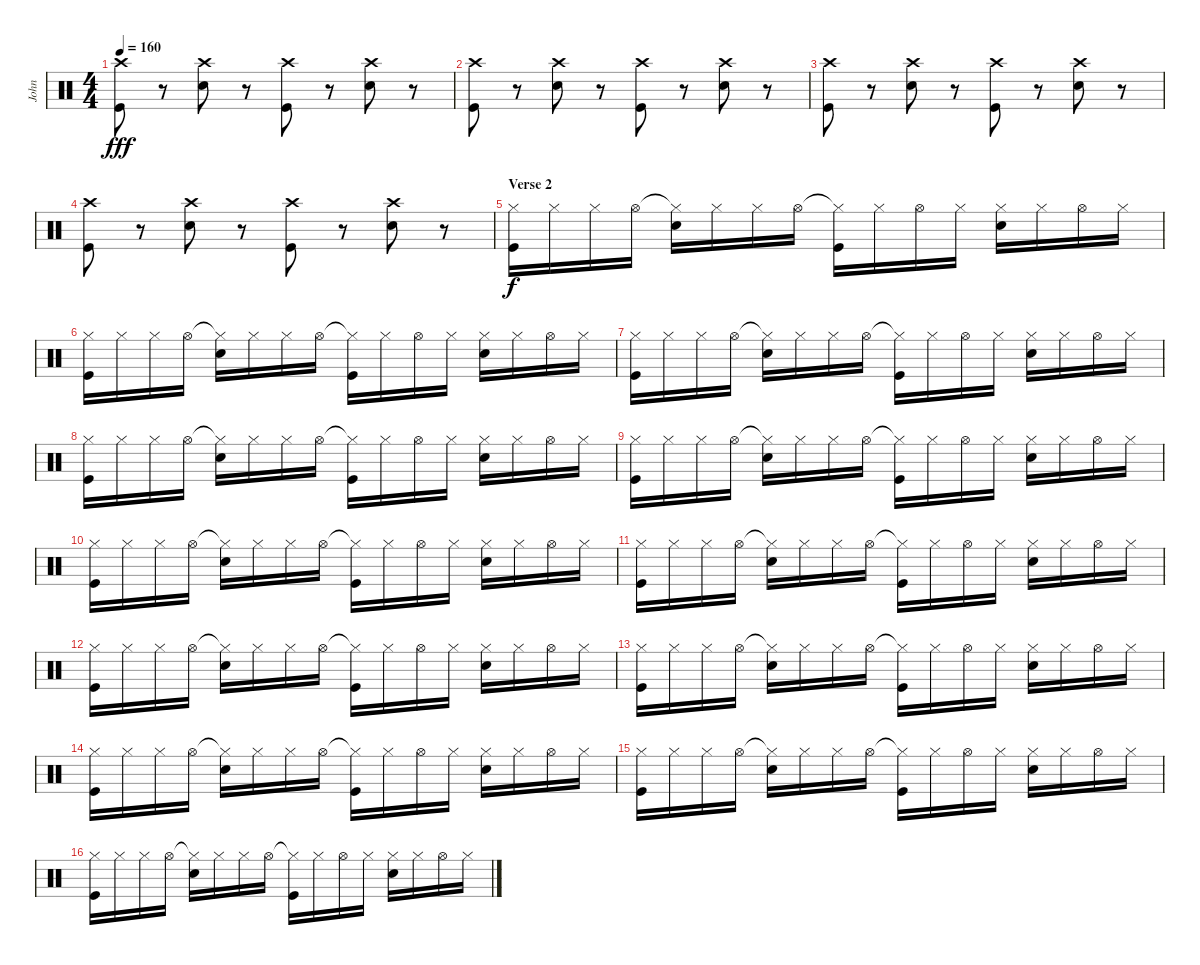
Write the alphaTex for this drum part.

\track ("John" "John") {instrument percussion}
\staff {score}
\articulation defaults
\ts (4 4)
\tempo 160
\clef neutral
\ks c
("Crash high (hit)" "Kick (hit)").8{dy fff} r.8 ("Crash high (hit)" "Electric Snare (hit)").8 r.8 ("Crash high (hit)" "Kick (hit)").8 r.8 ("Crash high (hit)" "Electric Snare (hit)").8 r.8 |
("Crash high (hit)" "Kick (hit)").8 r.8 ("Crash high (hit)" "Electric Snare (hit)").8 r.8 ("Crash high (hit)" "Kick (hit)").8 r.8 ("Crash high (hit)" "Electric Snare (hit)").8 r.8 |
("Crash high (hit)" "Kick (hit)").8 r.8 ("Crash high (hit)" "Electric Snare (hit)").8 r.8 ("Crash high (hit)" "Kick (hit)").8 r.8 ("Crash high (hit)" "Electric Snare (hit)").8 r.8 |
("Crash high (hit)" "Kick (hit)").8 r.8 ("Crash high (hit)" "Electric Snare (hit)").8 r.8 ("Crash high (hit)" "Kick (hit)").8 r.8 ("Crash high (hit)" "Electric Snare (hit)").8 r.8 |
\section ("" "Verse 2")
("Hi-Hat (closed)" "Kick (hit)").16{dy f} "Hi-Hat (closed)".16 "Hi-Hat (closed)".16 "Hi-Hat (open)".16 ("Hi-Hat (closed)"{t} "Electric Snare (hit)").16 "Hi-Hat (closed)".16 "Hi-Hat (closed)".16 "Hi-Hat (open)".16 ("Hi-Hat (closed)"{t} "Kick (hit)").16 "Hi-Hat (closed)".16 "Hi-Hat (open)".16 "Hi-Hat (closed)".16 ("Hi-Hat (closed)" "Electric Snare (hit)").16 "Hi-Hat (closed)".16 "Hi-Hat (open)".16 "Hi-Hat (closed)".16 |
("Hi-Hat (closed)" "Kick (hit)").16 "Hi-Hat (closed)".16 "Hi-Hat (closed)".16 "Hi-Hat (open)".16 ("Hi-Hat (closed)"{t} "Electric Snare (hit)").16 "Hi-Hat (closed)".16 "Hi-Hat (closed)".16 "Hi-Hat (open)".16 ("Hi-Hat (closed)"{t} "Kick (hit)").16 "Hi-Hat (closed)".16 "Hi-Hat (open)".16 "Hi-Hat (closed)".16 ("Hi-Hat (closed)" "Electric Snare (hit)").16 "Hi-Hat (closed)".16 "Hi-Hat (open)".16 "Hi-Hat (closed)".16 |
("Hi-Hat (closed)" "Kick (hit)").16 "Hi-Hat (closed)".16 "Hi-Hat (closed)".16 "Hi-Hat (open)".16 ("Hi-Hat (closed)"{t} "Electric Snare (hit)").16 "Hi-Hat (closed)".16 "Hi-Hat (closed)".16 "Hi-Hat (open)".16 ("Hi-Hat (closed)"{t} "Kick (hit)").16 "Hi-Hat (closed)".16 "Hi-Hat (open)".16 "Hi-Hat (closed)".16 ("Hi-Hat (closed)" "Electric Snare (hit)").16 "Hi-Hat (closed)".16 "Hi-Hat (open)".16 "Hi-Hat (closed)".16 |
("Hi-Hat (closed)" "Kick (hit)").16 "Hi-Hat (closed)".16 "Hi-Hat (closed)".16 "Hi-Hat (open)".16 ("Hi-Hat (closed)"{t} "Electric Snare (hit)").16 "Hi-Hat (closed)".16 "Hi-Hat (closed)".16 "Hi-Hat (open)".16 ("Hi-Hat (closed)"{t} "Kick (hit)").16 "Hi-Hat (closed)".16 "Hi-Hat (open)".16 "Hi-Hat (closed)".16 ("Hi-Hat (closed)" "Electric Snare (hit)").16 "Hi-Hat (closed)".16 "Hi-Hat (open)".16 "Hi-Hat (closed)".16 |
("Hi-Hat (closed)" "Kick (hit)").16 "Hi-Hat (closed)".16 "Hi-Hat (closed)".16 "Hi-Hat (open)".16 ("Hi-Hat (closed)"{t} "Electric Snare (hit)").16 "Hi-Hat (closed)".16 "Hi-Hat (closed)".16 "Hi-Hat (open)".16 ("Hi-Hat (closed)"{t} "Kick (hit)").16 "Hi-Hat (closed)".16 "Hi-Hat (open)".16 "Hi-Hat (closed)".16 ("Hi-Hat (closed)" "Electric Snare (hit)").16 "Hi-Hat (closed)".16 "Hi-Hat (open)".16 "Hi-Hat (closed)".16 |
("Hi-Hat (closed)" "Kick (hit)").16 "Hi-Hat (closed)".16 "Hi-Hat (closed)".16 "Hi-Hat (open)".16 ("Hi-Hat (closed)"{t} "Electric Snare (hit)").16 "Hi-Hat (closed)".16 "Hi-Hat (closed)".16 "Hi-Hat (open)".16 ("Hi-Hat (closed)"{t} "Kick (hit)").16 "Hi-Hat (closed)".16 "Hi-Hat (open)".16 "Hi-Hat (closed)".16 ("Hi-Hat (closed)" "Electric Snare (hit)").16 "Hi-Hat (closed)".16 "Hi-Hat (open)".16 "Hi-Hat (closed)".16 |
("Hi-Hat (closed)" "Kick (hit)").16 "Hi-Hat (closed)".16 "Hi-Hat (closed)".16 "Hi-Hat (open)".16 ("Hi-Hat (closed)"{t} "Electric Snare (hit)").16 "Hi-Hat (closed)".16 "Hi-Hat (closed)".16 "Hi-Hat (open)".16 ("Hi-Hat (closed)"{t} "Kick (hit)").16 "Hi-Hat (closed)".16 "Hi-Hat (open)".16 "Hi-Hat (closed)".16 ("Hi-Hat (closed)" "Electric Snare (hit)").16 "Hi-Hat (closed)".16 "Hi-Hat (open)".16 "Hi-Hat (closed)".16 |
("Hi-Hat (closed)" "Kick (hit)").16 "Hi-Hat (closed)".16 "Hi-Hat (closed)".16 "Hi-Hat (open)".16 ("Hi-Hat (closed)"{t} "Electric Snare (hit)").16 "Hi-Hat (closed)".16 "Hi-Hat (closed)".16 "Hi-Hat (open)".16 ("Hi-Hat (closed)"{t} "Kick (hit)").16 "Hi-Hat (closed)".16 "Hi-Hat (open)".16 "Hi-Hat (closed)".16 ("Hi-Hat (closed)" "Electric Snare (hit)").16 "Hi-Hat (closed)".16 "Hi-Hat (open)".16 "Hi-Hat (closed)".16 |
("Hi-Hat (closed)" "Kick (hit)").16 "Hi-Hat (closed)".16 "Hi-Hat (closed)".16 "Hi-Hat (open)".16 ("Hi-Hat (closed)"{t} "Electric Snare (hit)").16 "Hi-Hat (closed)".16 "Hi-Hat (closed)".16 "Hi-Hat (open)".16 ("Hi-Hat (closed)"{t} "Kick (hit)").16 "Hi-Hat (closed)".16 "Hi-Hat (open)".16 "Hi-Hat (closed)".16 ("Hi-Hat (closed)" "Electric Snare (hit)").16 "Hi-Hat (closed)".16 "Hi-Hat (open)".16 "Hi-Hat (closed)".16 |
("Hi-Hat (closed)" "Kick (hit)").16 "Hi-Hat (closed)".16 "Hi-Hat (closed)".16 "Hi-Hat (open)".16 ("Hi-Hat (closed)"{t} "Electric Snare (hit)").16 "Hi-Hat (closed)".16 "Hi-Hat (closed)".16 "Hi-Hat (open)".16 ("Hi-Hat (closed)"{t} "Kick (hit)").16 "Hi-Hat (closed)".16 "Hi-Hat (open)".16 "Hi-Hat (closed)".16 ("Hi-Hat (closed)" "Electric Snare (hit)").16 "Hi-Hat (closed)".16 "Hi-Hat (open)".16 "Hi-Hat (closed)".16 |
("Hi-Hat (closed)" "Kick (hit)").16 "Hi-Hat (closed)".16 "Hi-Hat (closed)".16 "Hi-Hat (open)".16 ("Hi-Hat (closed)"{t} "Electric Snare (hit)").16 "Hi-Hat (closed)".16 "Hi-Hat (closed)".16 "Hi-Hat (open)".16 ("Hi-Hat (closed)"{t} "Kick (hit)").16 "Hi-Hat (closed)".16 "Hi-Hat (open)".16 "Hi-Hat (closed)".16 ("Hi-Hat (closed)" "Electric Snare (hit)").16 "Hi-Hat (closed)".16 "Hi-Hat (open)".16 "Hi-Hat (closed)".16 |
("Hi-Hat (closed)" "Kick (hit)").16 "Hi-Hat (closed)".16 "Hi-Hat (closed)".16 "Hi-Hat (open)".16 ("Hi-Hat (closed)"{t} "Electric Snare (hit)").16 "Hi-Hat (closed)".16 "Hi-Hat (closed)".16 "Hi-Hat (open)".16 ("Hi-Hat (closed)"{t} "Kick (hit)").16 "Hi-Hat (closed)".16 "Hi-Hat (open)".16 "Hi-Hat (closed)".16 ("Hi-Hat (closed)" "Electric Snare (hit)").16 "Hi-Hat (closed)".16 "Hi-Hat (open)".16 "Hi-Hat (closed)".16
